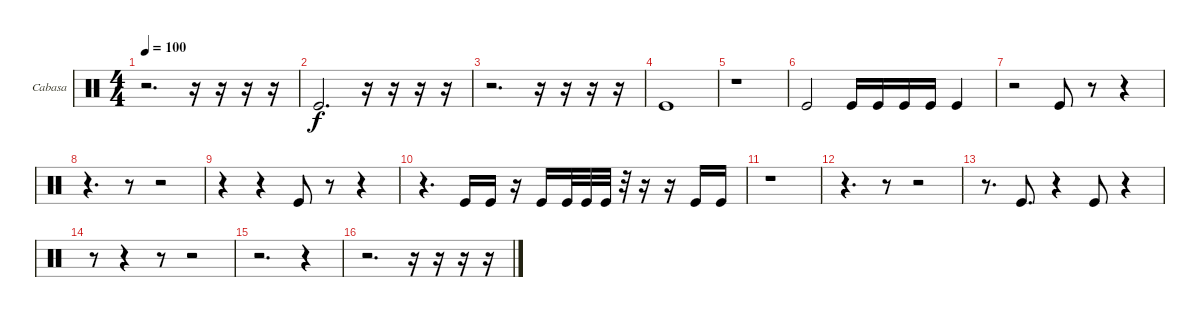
\bracketExtendMode groupsimilarinstruments
\firstSystemTrackNameOrientation horizontal
\otherSystemsTrackNameOrientation horizontal
\track ("Cabasa" "Cabasa") {instrument percussion}
\staff {score}
\articulation defaults
\ts (4 4)
\tempo 100
\clef neutral
\ks c
r.2{d dy f} r.16 r.16 r.16 r.16 |
"Kick (hit)".2{d} r.16 r.16 r.16 r.16 |
r.2{d} r.16 r.16 r.16 r.16 |
"Kick (hit)".1 |
r.1 |
"Kick (hit)".2 "Kick (hit)".16 "Kick (hit)".16 "Kick (hit)".16 "Kick (hit)".16 "Kick (hit)".4 |
r.2 "Kick (hit)".8 r.8 r.4 |
r.4{d} r.8 r.2 |
r.4 r.4 "Kick (hit)".8 r.8 r.4 |
r.4{d} "Kick (hit)".16 "Kick (hit)".16 r.16 "Kick (hit)".16 "Kick (hit)".32 "Kick (hit)".32 "Kick (hit)".32 r.32 r.16 r.16 "Kick (hit)".16 "Kick (hit)".16 |
r.1 |
r.4{d} r.8 r.2 |
r.8{d} "Kick (hit)".8{d} r.4 "Kick (hit)".8 r.4 |
r.8 r.4 r.8 r.2 |
r.2{d} r.4 |
r.2{d} r.16 r.16 r.16 r.16
